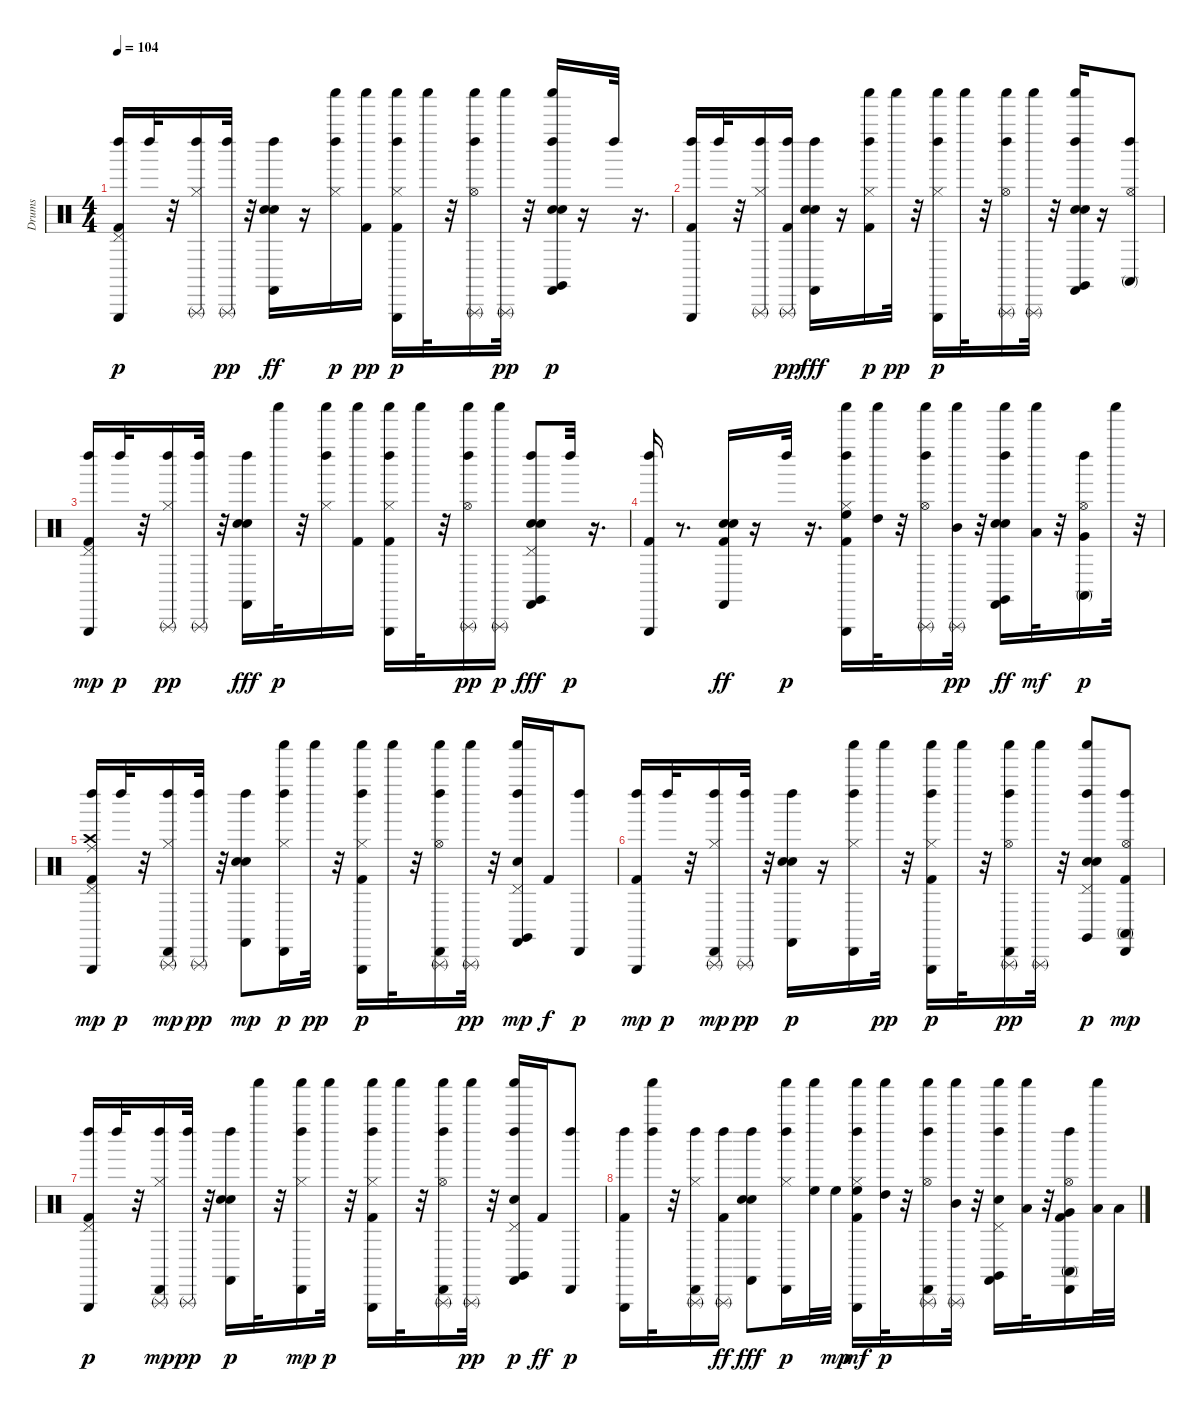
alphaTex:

\track ("Drums" "Drums") {instrument percussion}
\staff {score}
\articulation defaults
\ts (4 4)
\tempo 104
\clef neutral
\ks c
("Pedal Hi-Hat (hit)" "Triangle (hit)" "Kick (hit) 2" "Left Maraca (hit)").16{dy p} "Left Maraca (hit)".32 r.32 ("Triangle (rnute)" "Hi-Hat (closed)" "Left Maraca (hit)").16 ("Left Maraca (hit)" "Triangle (rnute)").32{dy pp} r.32 ("Hand Clap (hit)" "Electric Snare (hit)" "Left Maraca (hit)" "Castanets (hit)").16{dy ff} r.16 ("Shaker (hit)" "Left Maraca (hit)" "Hi-Hat (closed)").16{dy p} ("Kick (hit) 2" "Shaker (hit)").16{dy pp} ("Hi-Hat (closed)" "Triangle (hit)" "Kick (hit) 2" "Left Maraca (hit)" "Shaker (hit)").16{dy p} "Shaker (hit)".32 r.32 ("Shaker (hit)" "Triangle (rnute)" "Left Maraca (hit)" "Hi-Hat (open)").16 ("Shaker (hit)" "Triangle (rnute)").32{dy pp} r.32 ("Claves (hit)" "Electric Snare (hit)" "Castanets (hit)" "Hand Clap (hit)" "Shaker (hit)" "Left Maraca (hit)").16{dy p} r.16 "Left Maraca (hit)".32 r.16{d} |
("Triangle (hit)" "Kick (hit) 2" "Left Maraca (hit)").16 "Left Maraca (hit)".32 r.32 ("Triangle (rnute)" "Left Maraca (hit)" "Hi-Hat (closed)").16 ("Left Maraca (hit)" "Triangle (rnute)" "Kick (hit) 2").16{dy pp} ("Electric Snare (hit)" "Left Maraca (hit)" "Castanets (hit)" "Hand Clap (hit)").16{dy fff} r.16 ("Left Maraca (hit)" "Kick (hit) 2" "Shaker (hit)" "Hi-Hat (closed)").16{dy p} "Shaker (hit)".32{dy pp} r.32 ("Triangle (hit)" "Shaker (hit)" "Left Maraca (hit)" "Hi-Hat (closed)").16{dy p} "Shaker (hit)".32 r.32 ("Shaker (hit)" "Hi-Hat (open)" "Triangle (rnute)" "Left Maraca (hit)").16 ("Triangle (rnute)" "Shaker (hit)").32 r.32 ("Claves (hit)" "Shaker (hit)" "Hand Clap (hit)" "Electric Snare (hit)" "Castanets (hit)" "Left Maraca (hit)").16 r.16 ("Hi-Hat (open)" "Left Maraca (hit)" "Conga high (mute)").8 |
("Pedal Hi-Hat (hit)" "Left Maraca (hit)" "Triangle (hit)" "Kick (hit) 2").16{dy mp} "Left Maraca (hit)".32{dy p} r.32 ("Hi-Hat (closed)" "Triangle (rnute)" "Left Maraca (hit)").16{dy pp} ("Left Maraca (hit)" "Triangle (rnute)").32 r.32 ("Electric Snare (hit)" "Left Maraca (hit)" "Castanets (hit)" "Hand Clap (hit)").16{dy fff} "Shaker (hit)".32{dy p} r.32 ("Hi-Hat (closed)" "Shaker (hit)" "Left Maraca (hit)").16 ("Shaker (hit)" "Kick (hit) 2").16 ("Hi-Hat (closed)" "Shaker (hit)" "Triangle (hit)" "Left Maraca (hit)" "Kick (hit) 2").16 "Shaker (hit)".32 r.32 ("Left Maraca (hit)" "Hi-Hat (open)" "Shaker (hit)" "Triangle (rnute)").16{dy pp} ("Triangle (rnute)" "Shaker (hit)").16{dy p} ("Electric Snare (hit)" "Left Maraca (hit)" "Pedal Hi-Hat (hit)" "Claves (hit)" "Castanets (hit)" "Hand Clap (hit)").8{dy fff} "Left Maraca (hit)".32{dy p} r.16{d} |
("Triangle (hit)" "Kick (hit) 2" "Left Maraca (hit)").16 r.8{d} ("Hand Clap (hit)" "Kick (hit) 2" "Electric Snare (hit)" "Castanets (hit)").16{dy ff} r.16 "Left Maraca (hit)".32{dy p} r.16{d} ("Triangle (hit)" "High Floor Tom (hit)" "Shaker (hit)" "Kick (hit) 2" "Left Maraca (hit)" "Hi-Hat (closed)").16 ("High Tom (hit)" "Shaker (hit)").32 r.32 ("Shaker (hit)" "Triangle (rnute)" "Left Maraca (hit)" "Hi-Hat (open)").16 ("Shaker (hit)" "Mid Tom (hit)" "Triangle (rnute)").32{dy pp} r.32 ("Hand Clap (hit)" "Claves (hit)" "Shaker (hit)" "Left Maraca (hit)" "Electric Snare (hit)" "Castanets (hit)").16{dy ff} ("Shaker (hit)" "Low Tom (hit)").32{dy mf} r.32 ("Conga high (mute)" "Very Low Tom (hit)" "Left Maraca (hit)" "Hi-Hat (open)").16{dy p} "Shaker (hit)".32 r.32 |
("Pedal Hi-Hat (hit)" "Crash high (hit)" "Left Maraca (hit)" "Ride (middle)" "Triangle (hit)" "Kick (hit) 2").16{dy mp} "Left Maraca (hit)".32{dy p} r.32 ("Hi-Hat (closed)" "Triangle (rnute)" "Left Maraca (hit)" "Cabasa (hit)").16{dy mp} ("Left Maraca (hit)" "Triangle (rnute)").32{dy pp} r.32 ("Hand Clap (hit)" "Left Maraca (hit)" "Castanets (hit)" "Electric Snare (hit)").8{dy mp} ("Cabasa (hit)" "Hi-Hat (closed)" "Left Maraca (hit)" "Shaker (hit)").16{dy p} "Shaker (hit)".32{dy pp} r.32 ("Hi-Hat (closed)" "Kick (hit) 2" "Triangle (hit)" "Shaker (hit)" "Left Maraca (hit)").16{dy p} "Shaker (hit)".32 r.32 ("Triangle (rnute)" "Left Maraca (hit)" "Cabasa (hit)" "Shaker (hit)" "Hi-Hat (open)").16 ("Shaker (hit)" "Triangle (rnute)").32{dy pp} r.32 ("Hand Clap (hit)" "Shaker (hit)" "Left Maraca (hit)" "Castanets (hit)" "Claves (hit)" "Pedal Hi-Hat (hit)").16{dy mp} "Kick (hit) 2".16{dy f} ("Cabasa (hit)" "Left Maraca (hit)").8{dy p} |
("Kick (hit) 2" "Left Maraca (hit)" "Triangle (hit)").16{dy mp} "Left Maraca (hit)".32{dy p} r.32 ("Hi-Hat (closed)" "Triangle (rnute)" "Left Maraca (hit)" "Cabasa (hit)").16{dy mp} ("Left Maraca (hit)" "Triangle (rnute)").32{dy pp} r.32 ("Electric Snare (hit)" "Hand Clap (hit)" "Castanets (hit)" "Left Maraca (hit)").16{dy p} r.16 ("Cabasa (hit)" "Left Maraca (hit)" "Shaker (hit)" "Hi-Hat (closed)").16 "Shaker (hit)".32{dy pp} r.32 ("Triangle (hit)" "Hi-Hat (closed)" "Shaker (hit)" "Left Maraca (hit)" "Kick (hit) 2").16{dy p} "Shaker (hit)".32 r.32 ("Hi-Hat (open)" "Shaker (hit)" "Cabasa (hit)" "Left Maraca (hit)" "Triangle (rnute)").16{dy pp} ("Shaker (hit)" "Triangle (rnute)").32 r.32 ("Pedal Hi-Hat (hit)" "Electric Snare (hit)" "Left Maraca (hit)" "Claves (hit)" "Hand Clap (hit)" "Shaker (hit)").8{dy p} ("Hi-Hat (open)" "Left Maraca (hit)" "Kick (hit) 2" "Conga high (mute)" "Cabasa (hit)").8{dy mp} |
("Left Maraca (hit)" "Kick (hit) 2" "Triangle (hit)" "Pedal Hi-Hat (hit)").16{dy p} "Left Maraca (hit)".32 r.32 ("Hi-Hat (closed)" "Left Maraca (hit)" "Triangle (rnute)" "Cabasa (hit)").16{dy mp} ("Triangle (rnute)" "Left Maraca (hit)").32{dy pp} r.32 ("Hand Clap (hit)" "Castanets (hit)" "Electric Snare (hit)" "Left Maraca (hit)").16{dy p} "Shaker (hit)".32 r.32 ("Hi-Hat (closed)" "Left Maraca (hit)" "Shaker (hit)" "Cabasa (hit)").16{dy mp} "Shaker (hit)".32{dy p} r.32 ("Kick (hit) 2" "Left Maraca (hit)" "Triangle (hit)" "Shaker (hit)" "Hi-Hat (closed)").16 "Shaker (hit)".32 r.32 ("Triangle (rnute)" "Left Maraca (hit)" "Shaker (hit)" "Cabasa (hit)" "Hi-Hat (open)").16 ("Shaker (hit)" "Triangle (rnute)").32{dy pp} r.32 ("Pedal Hi-Hat (hit)" "Claves (hit)" "Castanets (hit)" "Left Maraca (hit)" "Hand Clap (hit)" "Shaker (hit)").16{dy p} "Kick (hit) 2".16{dy ff} ("Cabasa (hit)" "Left Maraca (hit)").8{dy p} |
("Kick (hit) 2" "Triangle (hit)" "Left Maraca (hit)").16 ("Shaker (hit)" "Left Maraca (hit)").32 r.32 ("Cabasa (hit)" "Left Maraca (hit)" "Triangle (rnute)" "Hi-Hat (closed)").16 ("Triangle (rnute)" "Left Maraca (hit)" "Kick (hit) 2").16{dy ff} ("Electric Snare (hit)" "Castanets (hit)" "Left Maraca (hit)" "Hand Clap (hit)").8{dy fff} ("Cabasa (hit)" "Left Maraca (hit)" "Shaker (hit)" "Hi-Hat (closed)").16{dy p} ("High Floor Tom (hit)" "Shaker (hit)").32 "High Floor Tom (hit)".32{dy mp} ("Kick (hit) 2" "Shaker (hit)" "Left Maraca (hit)" "Triangle (hit)" "Hi-Hat (closed)" "High Floor Tom (hit)").16{dy mf} ("High Tom (hit)" "Shaker (hit)").32{dy p} r.32 ("Triangle (rnute)" "Cabasa (hit)" "Left Maraca (hit)" "Shaker (hit)" "Hi-Hat (open)").16 ("Mid Tom (hit)" "Triangle (rnute)" "Shaker (hit)").32 r.32 ("Castanets (hit)" "Shaker (hit)" "Left Maraca (hit)" "Electric Snare (hit)" "Claves (hit)" "Pedal Hi-Hat (hit)").16 ("Low Tom (hit)" "Shaker (hit)").32 r.32 ("Conga high (mute)" "Cabasa (hit)" "Kick (hit) 2" "Hi-Hat (open)" "Very Low Tom (hit)" "Left Maraca (hit)").16 ("Low Floor Tom (hit)" "Shaker (hit)").32 "Low Floor Tom (hit)".32
